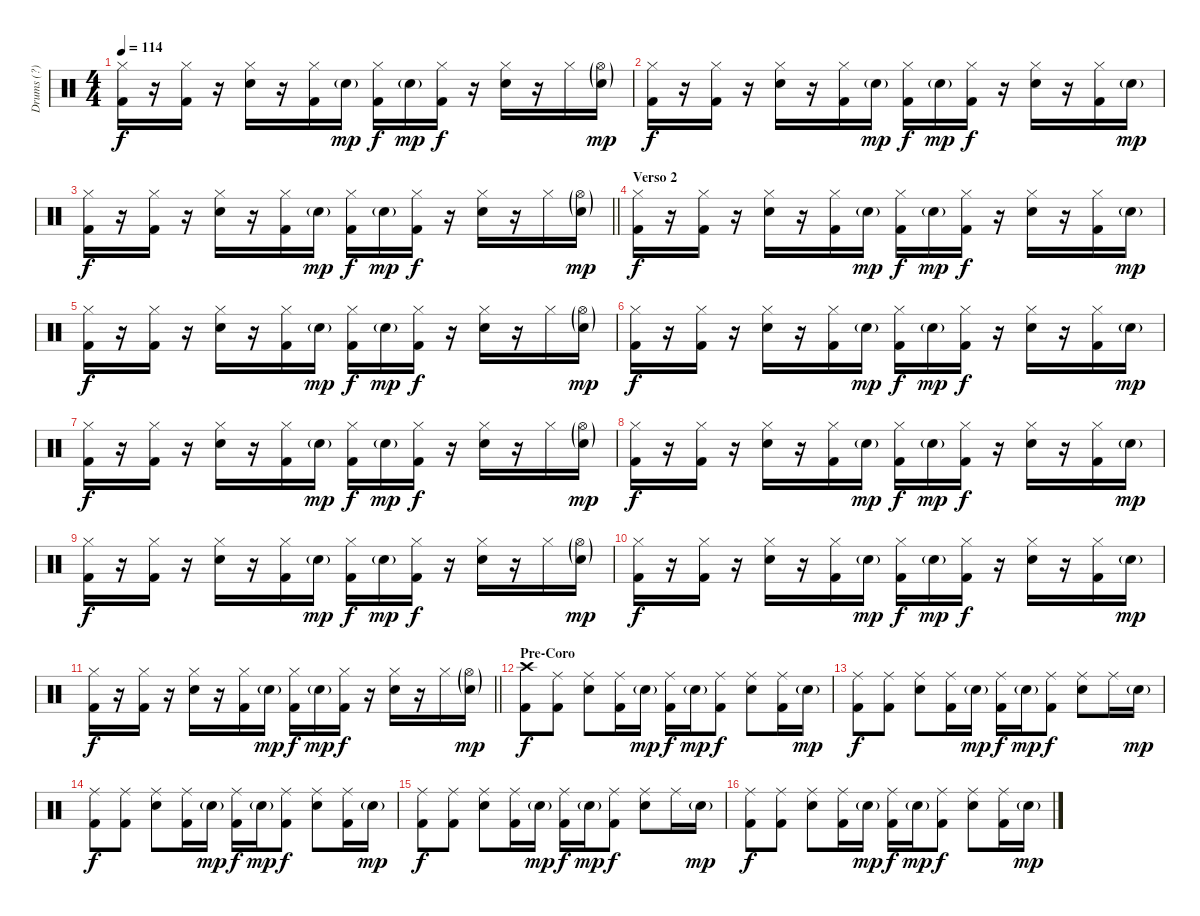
\track ("Drums (?)" "Drums (?)") {instrument percussion}
\staff {score}
\articulation defaults
\ts (4 4)
\tempo 114
\clef neutral
\ks c
("Hi-Hat (closed)" "Kick (hit) 2").16{dy f} r.16 ("Hi-Hat (closed)" "Kick (hit) 2").16 r.16 ("Hi-Hat (closed)" "Snare (hit) 2").16 r.16 ("Hi-Hat (closed)" "Kick (hit) 2").16 "Snare (hit) 2"{g}.16{dy mp} ("Hi-Hat (closed)" "Kick (hit) 2").16{dy f} "Snare (hit) 2"{g}.16{dy mp} ("Hi-Hat (closed)" "Kick (hit) 2").16{dy f} r.16 ("Hi-Hat (closed)" "Snare (hit) 2").16 r.16 "Hi-Hat (closed)".16 ("Hi-Hat (open)"{g} "Snare (hit) 2"{g}).16{dy mp} |
("Hi-Hat (closed)" "Kick (hit) 2").16{dy f} r.16 ("Hi-Hat (closed)" "Kick (hit) 2").16 r.16 ("Hi-Hat (closed)" "Snare (hit) 2").16 r.16 ("Hi-Hat (closed)" "Kick (hit) 2").16 "Snare (hit) 2"{g}.16{dy mp} ("Hi-Hat (closed)" "Kick (hit) 2").16{dy f} "Snare (hit) 2"{g}.16{dy mp} ("Hi-Hat (closed)" "Kick (hit) 2").16{dy f} r.16 ("Hi-Hat (closed)" "Snare (hit) 2").16 r.16 ("Hi-Hat (closed)" "Kick (hit) 2").16 "Snare (hit) 2"{g}.16{dy mp} |
\barLineRight lightlight
("Hi-Hat (closed)" "Kick (hit) 2").16{dy f} r.16 ("Hi-Hat (closed)" "Kick (hit) 2").16 r.16 ("Hi-Hat (closed)" "Snare (hit) 2").16 r.16 ("Hi-Hat (closed)" "Kick (hit) 2").16 "Snare (hit) 2"{g}.16{dy mp} ("Hi-Hat (closed)" "Kick (hit) 2").16{dy f} "Snare (hit) 2"{g}.16{dy mp} ("Hi-Hat (closed)" "Kick (hit) 2").16{dy f} r.16 ("Hi-Hat (closed)" "Snare (hit) 2").16 r.16 "Hi-Hat (closed)".16 ("Hi-Hat (open)"{g} "Snare (hit) 2"{g}).16{dy mp} |
\section ("" "Verso 2")
("Hi-Hat (closed)" "Kick (hit) 2").16{dy f} r.16 ("Hi-Hat (closed)" "Kick (hit) 2").16 r.16 ("Hi-Hat (closed)" "Snare (hit) 2").16 r.16 ("Hi-Hat (closed)" "Kick (hit) 2").16 "Snare (hit) 2"{g}.16{dy mp} ("Hi-Hat (closed)" "Kick (hit) 2").16{dy f} "Snare (hit) 2"{g}.16{dy mp} ("Hi-Hat (closed)" "Kick (hit) 2").16{dy f} r.16 ("Hi-Hat (closed)" "Snare (hit) 2").16 r.16 ("Hi-Hat (closed)" "Kick (hit) 2").16 "Snare (hit) 2"{g}.16{dy mp} |
("Hi-Hat (closed)" "Kick (hit) 2").16{dy f} r.16 ("Hi-Hat (closed)" "Kick (hit) 2").16 r.16 ("Hi-Hat (closed)" "Snare (hit) 2").16 r.16 ("Hi-Hat (closed)" "Kick (hit) 2").16 "Snare (hit) 2"{g}.16{dy mp} ("Hi-Hat (closed)" "Kick (hit) 2").16{dy f} "Snare (hit) 2"{g}.16{dy mp} ("Hi-Hat (closed)" "Kick (hit) 2").16{dy f} r.16 ("Hi-Hat (closed)" "Snare (hit) 2").16 r.16 "Hi-Hat (closed)".16 ("Hi-Hat (open)"{g} "Snare (hit) 2"{g}).16{dy mp} |
("Hi-Hat (closed)" "Kick (hit) 2").16{dy f} r.16 ("Hi-Hat (closed)" "Kick (hit) 2").16 r.16 ("Hi-Hat (closed)" "Snare (hit) 2").16 r.16 ("Hi-Hat (closed)" "Kick (hit) 2").16 "Snare (hit) 2"{g}.16{dy mp} ("Hi-Hat (closed)" "Kick (hit) 2").16{dy f} "Snare (hit) 2"{g}.16{dy mp} ("Hi-Hat (closed)" "Kick (hit) 2").16{dy f} r.16 ("Hi-Hat (closed)" "Snare (hit) 2").16 r.16 ("Hi-Hat (closed)" "Kick (hit) 2").16 "Snare (hit) 2"{g}.16{dy mp} |
("Hi-Hat (closed)" "Kick (hit) 2").16{dy f} r.16 ("Hi-Hat (closed)" "Kick (hit) 2").16 r.16 ("Hi-Hat (closed)" "Snare (hit) 2").16 r.16 ("Hi-Hat (closed)" "Kick (hit) 2").16 "Snare (hit) 2"{g}.16{dy mp} ("Hi-Hat (closed)" "Kick (hit) 2").16{dy f} "Snare (hit) 2"{g}.16{dy mp} ("Hi-Hat (closed)" "Kick (hit) 2").16{dy f} r.16 ("Hi-Hat (closed)" "Snare (hit) 2").16 r.16 "Hi-Hat (closed)".16 ("Hi-Hat (open)"{g} "Snare (hit) 2"{g}).16{dy mp} |
("Hi-Hat (closed)" "Kick (hit) 2").16{dy f} r.16 ("Hi-Hat (closed)" "Kick (hit) 2").16 r.16 ("Hi-Hat (closed)" "Snare (hit) 2").16 r.16 ("Hi-Hat (closed)" "Kick (hit) 2").16 "Snare (hit) 2"{g}.16{dy mp} ("Hi-Hat (closed)" "Kick (hit) 2").16{dy f} "Snare (hit) 2"{g}.16{dy mp} ("Hi-Hat (closed)" "Kick (hit) 2").16{dy f} r.16 ("Hi-Hat (closed)" "Snare (hit) 2").16 r.16 ("Hi-Hat (closed)" "Kick (hit) 2").16 "Snare (hit) 2"{g}.16{dy mp} |
("Hi-Hat (closed)" "Kick (hit) 2").16{dy f} r.16 ("Hi-Hat (closed)" "Kick (hit) 2").16 r.16 ("Hi-Hat (closed)" "Snare (hit) 2").16 r.16 ("Hi-Hat (closed)" "Kick (hit) 2").16 "Snare (hit) 2"{g}.16{dy mp} ("Hi-Hat (closed)" "Kick (hit) 2").16{dy f} "Snare (hit) 2"{g}.16{dy mp} ("Hi-Hat (closed)" "Kick (hit) 2").16{dy f} r.16 ("Hi-Hat (closed)" "Snare (hit) 2").16 r.16 "Hi-Hat (closed)".16 ("Hi-Hat (open)"{g} "Snare (hit) 2"{g}).16{dy mp} |
("Hi-Hat (closed)" "Kick (hit) 2").16{dy f} r.16 ("Hi-Hat (closed)" "Kick (hit) 2").16 r.16 ("Hi-Hat (closed)" "Snare (hit) 2").16 r.16 ("Hi-Hat (closed)" "Kick (hit) 2").16 "Snare (hit) 2"{g}.16{dy mp} ("Hi-Hat (closed)" "Kick (hit) 2").16{dy f} "Snare (hit) 2"{g}.16{dy mp} ("Hi-Hat (closed)" "Kick (hit) 2").16{dy f} r.16 ("Hi-Hat (closed)" "Snare (hit) 2").16 r.16 ("Hi-Hat (closed)" "Kick (hit) 2").16 "Snare (hit) 2"{g}.16{dy mp} |
\barLineRight lightlight
("Hi-Hat (closed)" "Kick (hit) 2").16{dy f} r.16 ("Hi-Hat (closed)" "Kick (hit) 2").16 r.16 ("Hi-Hat (closed)" "Snare (hit) 2").16 r.16 ("Hi-Hat (closed)" "Kick (hit) 2").16 "Snare (hit) 2"{g}.16{dy mp} ("Hi-Hat (closed)" "Kick (hit) 2").16{dy f} "Snare (hit) 2"{g}.16{dy mp} ("Hi-Hat (closed)" "Kick (hit) 2").16{dy f} r.16 ("Hi-Hat (closed)" "Snare (hit) 2").16 r.16 "Hi-Hat (closed)".16 ("Hi-Hat (open)"{g} "Snare (hit) 2"{g}).16{dy mp} |
\section ("" "Pre-Coro")
("Crash high (hit)" "Kick (hit) 2").8{dy f} ("Ride (middle)" "Kick (hit) 2").8 ("Ride (middle)" "Snare (hit) 2").8 ("Ride (middle)" "Kick (hit) 2").16 "Snare (hit) 2"{g}.16{dy mp} ("Ride (middle)" "Kick (hit) 2").16{dy f} "Snare (hit) 2"{g}.16{dy mp} ("Ride (middle)" "Kick (hit) 2").8{dy f} ("Ride (middle)" "Snare (hit) 2").8 ("Ride (middle)" "Kick (hit) 2").16 "Snare (hit) 2"{g}.16{dy mp} |
("Ride (middle)" "Kick (hit) 2").8{dy f} ("Ride (middle)" "Kick (hit) 2").8 ("Ride (middle)" "Snare (hit) 2").8 ("Ride (middle)" "Kick (hit) 2").16 "Snare (hit) 2"{g}.16{dy mp} ("Ride (middle)" "Kick (hit) 2").16{dy f} "Snare (hit) 2"{g}.16{dy mp} ("Ride (middle)" "Kick (hit) 2").8{dy f} ("Ride (middle)" "Snare (hit) 2").8 "Ride (middle)".16 "Snare (hit) 2"{g}.16{dy mp} |
("Ride (middle)" "Kick (hit) 2").8{dy f} ("Ride (middle)" "Kick (hit) 2").8 ("Ride (middle)" "Snare (hit) 2").8 ("Ride (middle)" "Kick (hit) 2").16 "Snare (hit) 2"{g}.16{dy mp} ("Ride (middle)" "Kick (hit) 2").16{dy f} "Snare (hit) 2"{g}.16{dy mp} ("Ride (middle)" "Kick (hit) 2").8{dy f} ("Ride (middle)" "Snare (hit) 2").8 ("Ride (middle)" "Kick (hit) 2").16 "Snare (hit) 2"{g}.16{dy mp} |
("Ride (middle)" "Kick (hit) 2").8{dy f} ("Ride (middle)" "Kick (hit) 2").8 ("Ride (middle)" "Snare (hit) 2").8 ("Ride (middle)" "Kick (hit) 2").16 "Snare (hit) 2"{g}.16{dy mp} ("Ride (middle)" "Kick (hit) 2").16{dy f} "Snare (hit) 2"{g}.16{dy mp} ("Ride (middle)" "Kick (hit) 2").8{dy f} ("Ride (middle)" "Snare (hit) 2").8 "Ride (middle)".16 "Snare (hit) 2"{g}.16{dy mp} |
("Ride (middle)" "Kick (hit) 2").8{dy f} ("Ride (middle)" "Kick (hit) 2").8 ("Ride (middle)" "Snare (hit) 2").8 ("Ride (middle)" "Kick (hit) 2").16 "Snare (hit) 2"{g}.16{dy mp} ("Ride (middle)" "Kick (hit) 2").16{dy f} "Snare (hit) 2"{g}.16{dy mp} ("Ride (middle)" "Kick (hit) 2").8{dy f} ("Ride (middle)" "Snare (hit) 2").8 ("Ride (middle)" "Kick (hit) 2").16 "Snare (hit) 2"{g}.16{dy mp}
